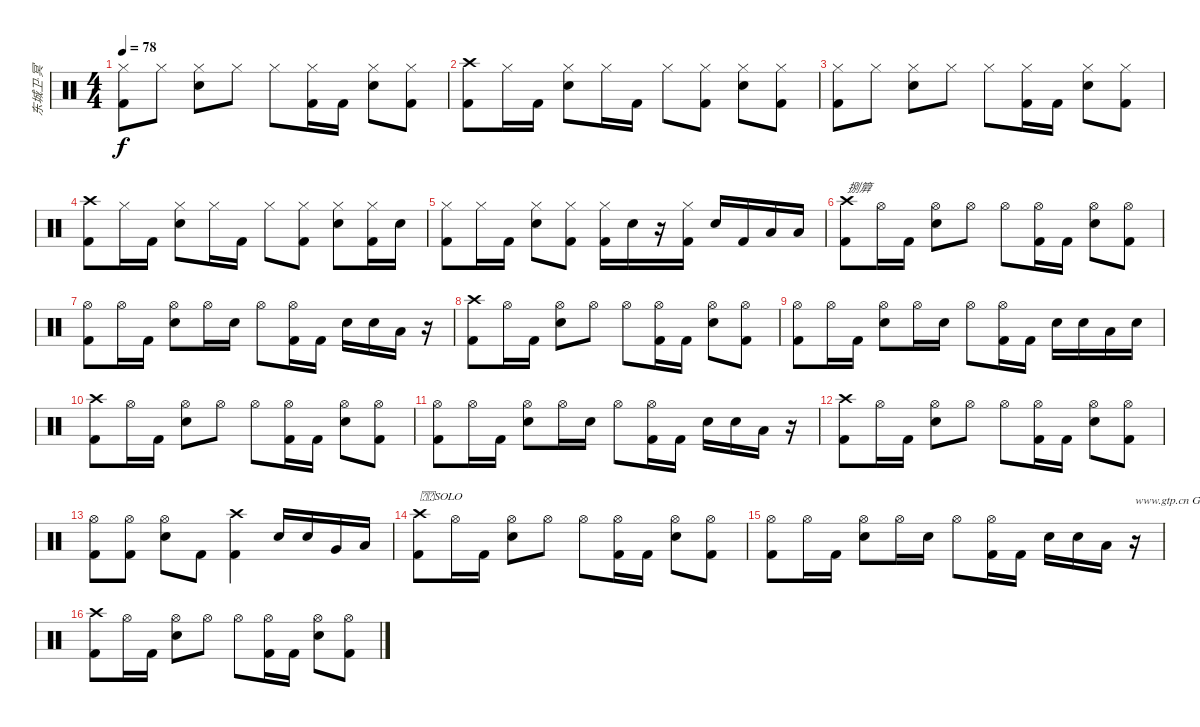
\track ("东城卫·冥" "东城卫·冥") {instrument percussion}
\staff {score}
\articulation defaults
\ts (4 4)
\tempo 78
\clef neutral
\ks c
("Hi-Hat (closed)" "Kick (hit) 2").8{dy f} "Hi-Hat (closed)".8 ("Hi-Hat (closed)" "Electric Snare (hit)").8 "Hi-Hat (closed)".8 "Hi-Hat (closed)".8 ("Hi-Hat (closed)" "Kick (hit) 2").16 "Kick (hit) 2".16 ("Hi-Hat (closed)" "Electric Snare (hit)").8 ("Hi-Hat (closed)" "Kick (hit) 2").8 |
("Crash high (hit)" "Kick (hit) 2").8 "Hi-Hat (closed)".16 "Kick (hit) 2".16 ("Hi-Hat (closed)" "Electric Snare (hit)").8 "Hi-Hat (closed)".16 "Kick (hit) 2".16 "Hi-Hat (closed)".8 ("Hi-Hat (closed)" "Kick (hit) 2").8 ("Hi-Hat (closed)" "Electric Snare (hit)").8 ("Hi-Hat (closed)" "Kick (hit) 2").8 |
("Hi-Hat (closed)" "Kick (hit) 2").8 "Hi-Hat (closed)".8 ("Hi-Hat (closed)" "Electric Snare (hit)").8 "Hi-Hat (closed)".8 "Hi-Hat (closed)".8 ("Hi-Hat (closed)" "Kick (hit) 2").16 "Kick (hit) 2".16 ("Hi-Hat (closed)" "Electric Snare (hit)").8 ("Hi-Hat (closed)" "Kick (hit) 2").8 |
("Crash high (hit)" "Kick (hit) 2").8 "Hi-Hat (closed)".16 "Kick (hit) 2".16 ("Hi-Hat (closed)" "Electric Snare (hit)").8 "Hi-Hat (closed)".16 "Kick (hit) 2".16 "Hi-Hat (closed)".8 ("Hi-Hat (closed)" "Kick (hit) 2").8 ("Hi-Hat (closed)" "Electric Snare (hit)").8 ("Hi-Hat (closed)" "Kick (hit) 2").16 "Electric Snare (hit)".16 |
("Hi-Hat (closed)" "Kick (hit) 2").8 "Hi-Hat (closed)".16 "Kick (hit) 2".16 ("Hi-Hat (closed)" "Electric Snare (hit)").8 ("Hi-Hat (closed)" "Kick (hit) 2").8 ("Hi-Hat (closed)" "Kick (hit) 2").16 "Electric Snare (hit)".16 r.16 ("Hi-Hat (closed)" "Kick (hit) 2").16 "Electric Snare (hit)".16 "Kick (hit) 2".16 "Low Tom (hit)".16 "Low Tom (hit)".16 |
("Crash high (hit)" "Kick (hit) 2").8{txt "捌簈"} "Hi-Hat (open)".16 "Kick (hit) 2".16 ("Hi-Hat (open)" "Electric Snare (hit)").8 "Hi-Hat (open)".8 "Hi-Hat (open)".8 ("Hi-Hat (open)" "Kick (hit) 2").16 "Kick (hit) 2".16 ("Hi-Hat (open)" "Electric Snare (hit)").8 ("Hi-Hat (open)" "Kick (hit) 2").8 |
("Hi-Hat (open)" "Kick (hit) 2").8 "Hi-Hat (open)".16 "Kick (hit) 2".16 ("Hi-Hat (open)" "Electric Snare (hit)").8 "Hi-Hat (open)".16 "Electric Snare (hit)".16 "Hi-Hat (open)".8 ("Hi-Hat (open)" "Kick (hit) 2").16 "Kick (hit) 2".16 "Electric Snare (hit)".16 "Electric Snare (hit)".16 "Low Tom (hit)".16 r.16 |
("Crash high (hit)" "Kick (hit) 2").8 "Hi-Hat (open)".16 "Kick (hit) 2".16 ("Hi-Hat (open)" "Electric Snare (hit)").8 "Hi-Hat (open)".8 "Hi-Hat (open)".8 ("Hi-Hat (open)" "Kick (hit) 2").16 "Kick (hit) 2".16 ("Hi-Hat (open)" "Electric Snare (hit)").8 ("Hi-Hat (open)" "Kick (hit) 2").8 |
("Hi-Hat (open)" "Kick (hit) 2").8 "Hi-Hat (open)".16 "Kick (hit) 2".16 ("Hi-Hat (open)" "Electric Snare (hit)").8 "Hi-Hat (open)".16 "Electric Snare (hit)".16 "Hi-Hat (open)".8 ("Hi-Hat (open)" "Kick (hit) 2").16 "Kick (hit) 2".16 "Electric Snare (hit)".16 "Electric Snare (hit)".16 "Low Tom (hit)".16 "Electric Snare (hit)".16 |
("Crash high (hit)" "Kick (hit) 2").8 "Hi-Hat (open)".16 "Kick (hit) 2".16 ("Hi-Hat (open)" "Electric Snare (hit)").8 "Hi-Hat (open)".8 "Hi-Hat (open)".8 ("Hi-Hat (open)" "Kick (hit) 2").16 "Kick (hit) 2".16 ("Hi-Hat (open)" "Electric Snare (hit)").8 ("Hi-Hat (open)" "Kick (hit) 2").8 |
("Hi-Hat (open)" "Kick (hit) 2").8 "Hi-Hat (open)".16 "Kick (hit) 2".16 ("Hi-Hat (open)" "Electric Snare (hit)").8 "Hi-Hat (open)".16 "Electric Snare (hit)".16 "Hi-Hat (open)".8 ("Hi-Hat (open)" "Kick (hit) 2").16 "Kick (hit) 2".16 "Electric Snare (hit)".16 "Electric Snare (hit)".16 "Low Tom (hit)".16 r.16 |
("Crash high (hit)" "Kick (hit) 2").8 "Hi-Hat (open)".16 "Kick (hit) 2".16 ("Hi-Hat (open)" "Electric Snare (hit)").8 "Hi-Hat (open)".8 "Hi-Hat (open)".8 ("Hi-Hat (open)" "Kick (hit) 2").16 "Kick (hit) 2".16 ("Hi-Hat (open)" "Electric Snare (hit)").8 ("Hi-Hat (open)" "Kick (hit) 2").8 |
("Hi-Hat (open)" "Kick (hit) 2").8 ("Hi-Hat (open)" "Kick (hit) 2").8 ("Hi-Hat (open)" "Electric Snare (hit)").8 "Kick (hit) 2".8 ("Crash high (hit)" "Kick (hit) 2").4 "Electric Snare (hit)".16 "Electric Snare (hit)".16 "Very Low Tom (hit)".16 "Low Floor Tom (hit)".16 |
("Crash high (hit)" "Kick (hit) 2").8{txt "SOLO"} "Hi-Hat (open)".16 "Kick (hit) 2".16 ("Hi-Hat (open)" "Electric Snare (hit)").8 "Hi-Hat (open)".8 "Hi-Hat (open)".8 ("Hi-Hat (open)" "Kick (hit) 2").16 "Kick (hit) 2".16 ("Hi-Hat (open)" "Electric Snare (hit)").8 ("Hi-Hat (open)" "Kick (hit) 2").8 |
("Hi-Hat (open)" "Kick (hit) 2").8 "Hi-Hat (open)".16 "Kick (hit) 2".16 ("Hi-Hat (open)" "Electric Snare (hit)").8 "Hi-Hat (open)".16 "Electric Snare (hit)".16 "Hi-Hat (open)".8 ("Hi-Hat (open)" "Kick (hit) 2").16 "Kick (hit) 2".16 "Electric Snare (hit)".16 "Electric Snare (hit)".16 "Low Tom (hit)".16 r.16{txt "www.gtp.cn GTP中文网为您提供优秀的谱子"} |
("Crash high (hit)" "Kick (hit) 2").8 "Hi-Hat (open)".16 "Kick (hit) 2".16 ("Hi-Hat (open)" "Electric Snare (hit)").8 "Hi-Hat (open)".8 "Hi-Hat (open)".8 ("Hi-Hat (open)" "Kick (hit) 2").16 "Kick (hit) 2".16 ("Hi-Hat (open)" "Electric Snare (hit)").8 ("Hi-Hat (open)" "Kick (hit) 2").8
